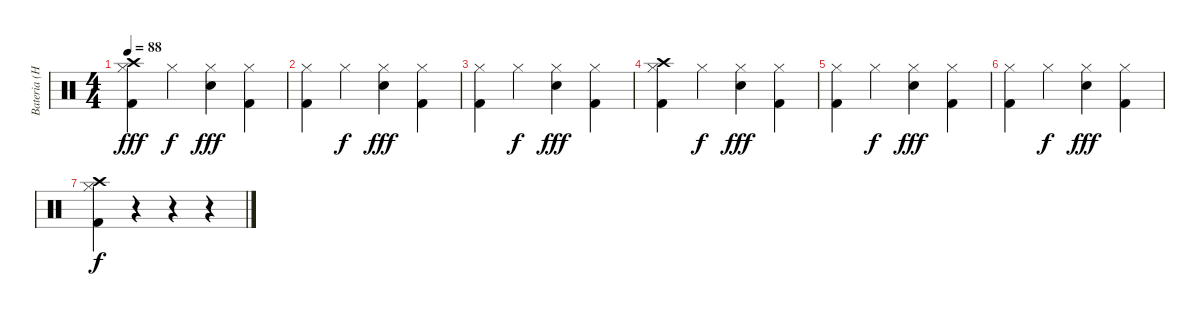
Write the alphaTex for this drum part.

\track ("Bateria (Hugo)" "Bateria (H") {instrument percussion}
\staff {score}
\articulation defaults
\ts (4 4)
\tempo 88
\clef neutral
\ks c
("Crash high (hit)" "Kick (hit) 2" "Hi-Hat (closed)").4{dy fff} "Hi-Hat (closed)".4{dy f} ("Snare (hit) 2" "Hi-Hat (closed)").4{dy fff} ("Kick (hit) 2" "Hi-Hat (closed)").4 |
("Kick (hit) 2" "Hi-Hat (closed)").4 "Hi-Hat (closed)".4{dy f} ("Snare (hit) 2" "Hi-Hat (closed)").4{dy fff} ("Kick (hit) 2" "Hi-Hat (closed)").4 |
("Kick (hit) 2" "Hi-Hat (closed)").4 "Hi-Hat (closed)".4{dy f} ("Snare (hit) 2" "Hi-Hat (closed)").4{dy fff} ("Kick (hit) 2" "Hi-Hat (closed)").4 |
("Crash high (hit)" "Kick (hit) 2" "Hi-Hat (closed)").4 "Hi-Hat (closed)".4{dy f} ("Snare (hit) 2" "Hi-Hat (closed)").4{dy fff} ("Kick (hit) 2" "Hi-Hat (closed)").4 |
("Kick (hit) 2" "Hi-Hat (closed)").4 "Hi-Hat (closed)".4{dy f} ("Snare (hit) 2" "Hi-Hat (closed)").4{dy fff} ("Kick (hit) 2" "Hi-Hat (closed)").4 |
("Kick (hit) 2" "Hi-Hat (closed)").4 "Hi-Hat (closed)".4{dy f} ("Snare (hit) 2" "Hi-Hat (closed)").4{dy fff} ("Kick (hit) 2" "Hi-Hat (closed)").4 |
("Crash high (hit)" "Kick (hit) 2" "Hi-Hat (closed)").4{dy f} r.4 r.4 r.4
